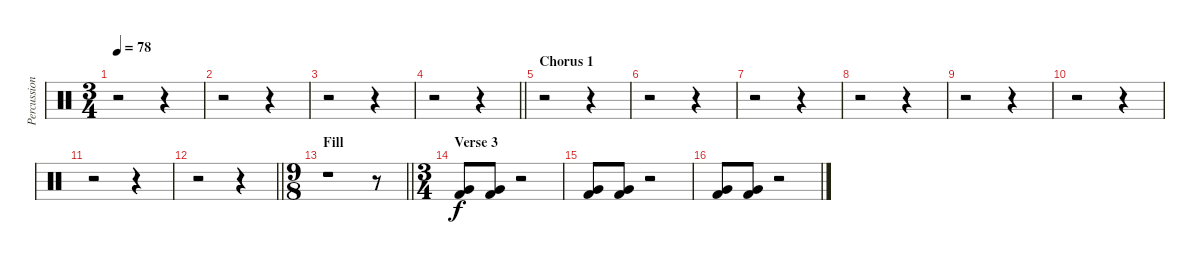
\track ("Percussion" "Percussion") {instrument percussion}
\staff {score}
\articulation defaults
\ts (3 4)
\tempo 78
\clef neutral
\ks c
r.2{dy f} r.4 |
r.2 r.4 |
r.2 r.4 |
\barLineRight lightlight
r.2 r.4 |
\section ("" "Chorus 1")
r.2 r.4 |
r.2 r.4 |
r.2 r.4 |
r.2 r.4 |
r.2 r.4 |
r.2 r.4 |
r.2 r.4 |
\barLineRight lightlight
r.2 r.4 |
\ts (9 8)
\section ("" "Fill")
\barLineRight lightlight
r.1 r.8 |
\ts (3 4)
\section ("" "Verse 3")
("Very Low Tom (hit)" "Kick (hit) 2").8 ("Very Low Tom (hit)" "Kick (hit) 2").8 r.2 |
("Very Low Tom (hit)" "Kick (hit) 2").8 ("Very Low Tom (hit)" "Kick (hit) 2").8 r.2 |
("Very Low Tom (hit)" "Kick (hit) 2").8 ("Very Low Tom (hit)" "Kick (hit) 2").8 r.2
